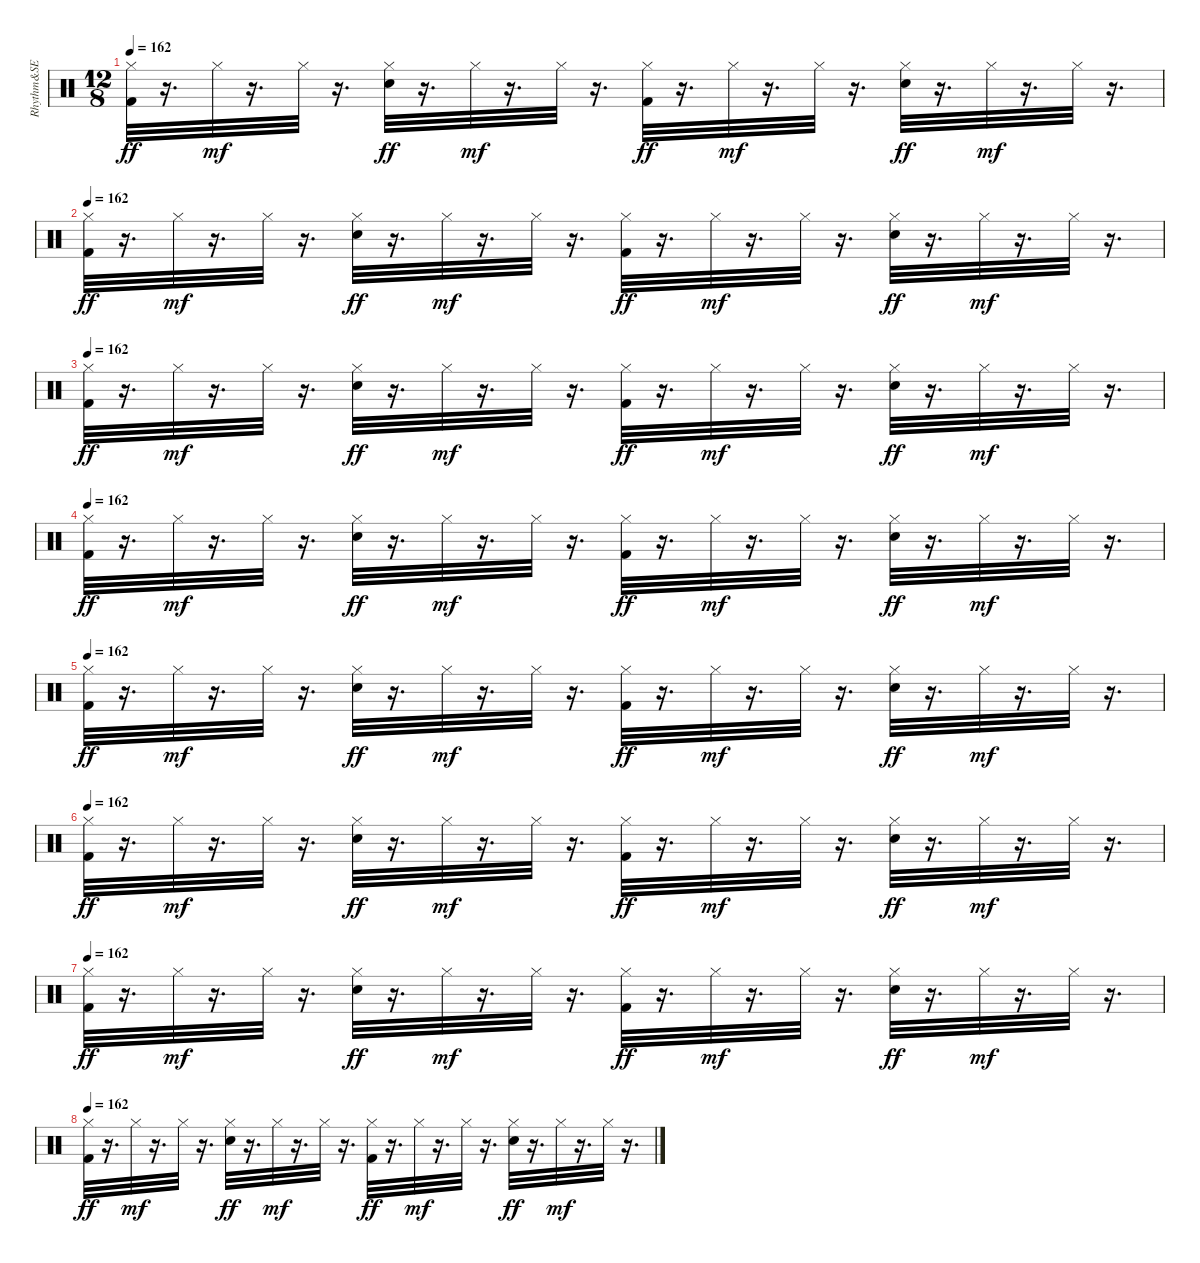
\track ("Rhythm&SE" "Rhythm&SE") {instrument percussion}
\staff {score}
\articulation defaults
\ts (12 8)
\tempo 162
\clef neutral
\ks c
("Kick (hit) 2" "Hi-Hat (closed)").32{dy ff balance 8} r.16{d} "Hi-Hat (closed)".32{dy mf volume 6} r.16{d} "Hi-Hat (closed)".32 r.16{d} ("Snare (hit) 2" "Hi-Hat (closed)").32{dy ff} r.16{d} "Hi-Hat (closed)".32{dy mf volume 6} r.16{d} "Hi-Hat (closed)".32 r.16{d} ("Kick (hit) 2" "Hi-Hat (closed)").32{dy ff volume 6} r.16{d} "Hi-Hat (closed)".32{dy mf} r.16{d} "Hi-Hat (closed)".32{volume 6} r.16{d} ("Snare (hit) 2" "Hi-Hat (closed)").32{dy ff} r.16{d} "Hi-Hat (closed)".32{dy mf} r.16{d} "Hi-Hat (closed)".32{volume 6} r.16{d} |
\tempo 162
("Kick (hit) 2" "Hi-Hat (closed)").32{dy ff balance 8} r.16{d} "Hi-Hat (closed)".32{dy mf volume 6} r.16{d} "Hi-Hat (closed)".32 r.16{d} ("Snare (hit) 2" "Hi-Hat (closed)").32{dy ff volume 6} r.16{d} "Hi-Hat (closed)".32{dy mf} r.16{d} "Hi-Hat (closed)".32 r.16{d} ("Kick (hit) 2" "Hi-Hat (closed)").32{dy ff volume 5} r.16{d} "Hi-Hat (closed)".32{dy mf} r.16{d} "Hi-Hat (closed)".32{volume 5} r.16{d} ("Snare (hit) 2" "Hi-Hat (closed)").32{dy ff} r.16{d} "Hi-Hat (closed)".32{dy mf volume 5} r.16{d} "Hi-Hat (closed)".32 r.16{d} |
\tempo 162
("Kick (hit) 2" "Hi-Hat (closed)").32{dy ff balance 8} r.16{d} "Hi-Hat (closed)".32{dy mf} r.16{d} "Hi-Hat (closed)".32 r.16{d} ("Snare (hit) 2" "Hi-Hat (closed)").32{dy ff volume 5} r.16{d} "Hi-Hat (closed)".32{dy mf} r.16{d} "Hi-Hat (closed)".32{volume 5} r.16{d} ("Kick (hit) 2" "Hi-Hat (closed)").32{dy ff} r.16{d} "Hi-Hat (closed)".32{dy mf volume 5} r.16{d} "Hi-Hat (closed)".32 r.16{d} ("Snare (hit) 2" "Hi-Hat (closed)").32{dy ff} r.16{d} "Hi-Hat (closed)".32{dy mf volume 4} r.16{d} "Hi-Hat (closed)".32 r.16{d} |
\tempo 162
("Kick (hit) 2" "Hi-Hat (closed)").32{dy ff volume 4 balance 8} r.16{d} "Hi-Hat (closed)".32{dy mf} r.16{d} "Hi-Hat (closed)".32{volume 4} r.16{d} ("Snare (hit) 2" "Hi-Hat (closed)").32{dy ff} r.16{d} "Hi-Hat (closed)".32{dy mf volume 4} r.16{d} "Hi-Hat (closed)".32 r.16{d} ("Kick (hit) 2" "Hi-Hat (closed)").32{dy ff} r.16{d} "Hi-Hat (closed)".32{dy mf volume 4} r.16{d} "Hi-Hat (closed)".32 r.16{d} ("Snare (hit) 2" "Hi-Hat (closed)").32{dy ff volume 4} r.16{d} "Hi-Hat (closed)".32{dy mf} r.16{d} "Hi-Hat (closed)".32{volume 4} r.16{d} |
\tempo 162
("Kick (hit) 2" "Hi-Hat (closed)").32{dy ff balance 8} r.16{d} "Hi-Hat (closed)".32{dy mf} r.16{d} "Hi-Hat (closed)".32{volume 4} r.16{d} ("Snare (hit) 2" "Hi-Hat (closed)").32{dy ff} r.16{d} "Hi-Hat (closed)".32{dy mf volume 4} r.16{d} "Hi-Hat (closed)".32 r.16{d} ("Kick (hit) 2" "Hi-Hat (closed)").32{dy ff volume 3} r.16{d} "Hi-Hat (closed)".32{dy mf} r.16{d} "Hi-Hat (closed)".32{volume 3} r.16{d} ("Snare (hit) 2" "Hi-Hat (closed)").32{dy ff} r.16{d} "Hi-Hat (closed)".32{dy mf} r.16{d} "Hi-Hat (closed)".32 r.16{d} |
\tempo 162
("Kick (hit) 2" "Hi-Hat (closed)").32{dy ff volume 3 balance 8} r.16{d} "Hi-Hat (closed)".32{dy mf} r.16{d} "Hi-Hat (closed)".32 r.16{d} ("Snare (hit) 2" "Hi-Hat (closed)").32{dy ff volume 3} r.16{d} "Hi-Hat (closed)".32{dy mf} r.16{d} "Hi-Hat (closed)".32{volume 4} r.16{d} ("Kick (hit) 2" "Hi-Hat (closed)").32{dy ff} r.16{d} "Hi-Hat (closed)".32{dy mf volume 4} r.16{d} "Hi-Hat (closed)".32 r.16{d} ("Snare (hit) 2" "Hi-Hat (closed)").32{dy ff} r.16{d} "Hi-Hat (closed)".32{dy mf volume 4} r.16{d} "Hi-Hat (closed)".32 r.16{d} |
\tempo 162
("Kick (hit) 2" "Hi-Hat (closed)").32{dy ff volume 4 balance 8} r.16{d} "Hi-Hat (closed)".32{dy mf} r.16{d} "Hi-Hat (closed)".32{volume 4} r.16{d} ("Snare (hit) 2" "Hi-Hat (closed)").32{dy ff} r.16{d} "Hi-Hat (closed)".32{dy mf} r.16{d} "Hi-Hat (closed)".32{volume 4} r.16{d} ("Kick (hit) 2" "Hi-Hat (closed)").32{dy ff} r.16{d} "Hi-Hat (closed)".32{dy mf volume 4} r.16{d} "Hi-Hat (closed)".32 r.16{d} ("Snare (hit) 2" "Hi-Hat (closed)").32{dy ff volume 4} r.16{d} "Hi-Hat (closed)".32{dy mf} r.16{d} "Hi-Hat (closed)".32{volume 4} r.16{d} |
\tempo 162
("Kick (hit) 2" "Hi-Hat (closed)").32{dy ff balance 8} r.16{d} "Hi-Hat (closed)".32{dy mf} r.16{d} "Hi-Hat (closed)".32{volume 5} r.16{d} ("Snare (hit) 2" "Hi-Hat (closed)").32{dy ff} r.16{d} "Hi-Hat (closed)".32{dy mf volume 5} r.16{d} "Hi-Hat (closed)".32 r.16{d} ("Kick (hit) 2" "Hi-Hat (closed)").32{dy ff volume 5} r.16{d} "Hi-Hat (closed)".32{dy mf} r.16{d} "Hi-Hat (closed)".32 r.16{d} ("Snare (hit) 2" "Hi-Hat (closed)").32{dy ff volume 5} r.16{d} "Hi-Hat (closed)".32{dy mf} r.16{d} "Hi-Hat (closed)".32{volume 5} r.16{d}
